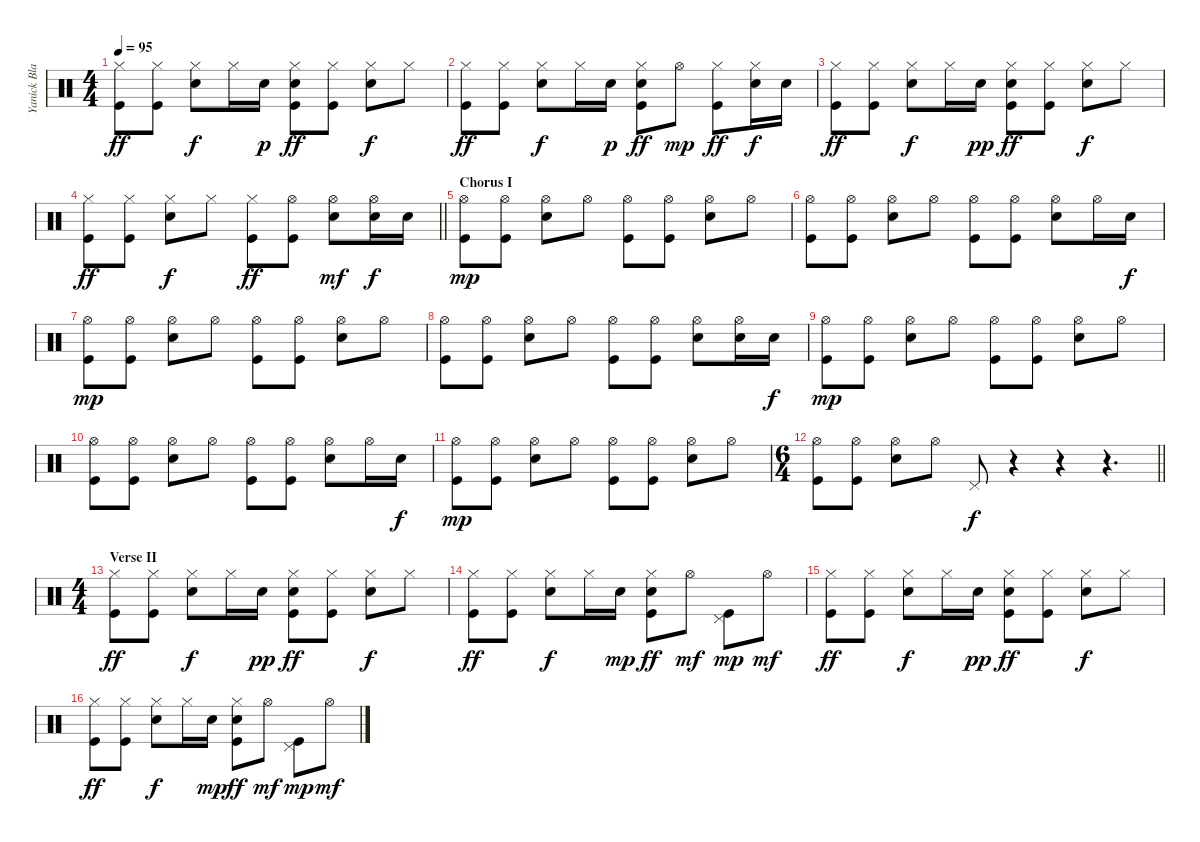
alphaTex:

\track ("Yanick Blanchette" "Yanick Bla") {instrument percussion}
\staff {score}
\articulation defaults
\ts (4 4)
\tempo 95
\clef neutral
\ks c
("Hi-Hat (closed)" "Kick (hit)").8{dy ff} ("Hi-Hat (closed)" "Kick (hit)").8 ("Hi-Hat (closed)" "Snare (hit) 2").8{dy f} "Hi-Hat (closed)".16 "Snare (hit) 2".16{dy p} ("Hi-Hat (closed)" "Snare (hit) 2" "Kick (hit)").8{dy ff} ("Hi-Hat (closed)" "Kick (hit)").8 ("Hi-Hat (closed)" "Snare (hit) 2").8{dy f} "Hi-Hat (closed)".8 |
("Hi-Hat (closed)" "Kick (hit)").8{dy ff} ("Hi-Hat (closed)" "Kick (hit)").8 ("Hi-Hat (closed)" "Snare (hit) 2").8{dy f} "Hi-Hat (closed)".16 "Snare (hit) 2".16{dy p} ("Hi-Hat (closed)" "Snare (hit) 2" "Kick (hit)").8{dy ff} "Hi-Hat (open)".8{dy mp} ("Hi-Hat (closed)" "Kick (hit)").8{dy ff} ("Hi-Hat (closed)" "Snare (hit) 2").16{dy f} "Snare (hit) 2".16 |
("Hi-Hat (closed)" "Kick (hit)").8{dy ff} ("Hi-Hat (closed)" "Kick (hit)").8 ("Hi-Hat (closed)" "Snare (hit) 2").8{dy f} "Hi-Hat (closed)".16 "Snare (hit) 2".16{dy pp} ("Hi-Hat (closed)" "Snare (hit) 2" "Kick (hit)").8{dy ff} ("Hi-Hat (closed)" "Kick (hit)").8 ("Hi-Hat (closed)" "Snare (hit) 2").8{dy f} "Hi-Hat (closed)".8 |
\barLineRight lightlight
("Hi-Hat (closed)" "Kick (hit)").8{dy ff} ("Hi-Hat (closed)" "Kick (hit)").8 ("Hi-Hat (closed)" "Snare (hit) 2").8{dy f} "Hi-Hat (closed)".8 ("Hi-Hat (closed)" "Kick (hit)").8{dy ff} ("Hi-Hat (open)" "Kick (hit)").8 ("Hi-Hat (open)" "Snare (hit) 2").8{dy mf} ("Hi-Hat (open)" "Snare (hit) 2").16{dy f} "Snare (hit) 2".16 |
\section ("" "Chorus I")
("Hi-Hat (open)" "Kick (hit)").8{dy mp} ("Hi-Hat (open)" "Kick (hit)").8 ("Hi-Hat (open)" "Snare (hit) 2").8 "Hi-Hat (open)".8 ("Hi-Hat (open)" "Kick (hit)").8 ("Hi-Hat (open)" "Kick (hit)").8 ("Hi-Hat (open)" "Snare (hit) 2").8 "Hi-Hat (open)".8 |
("Hi-Hat (open)" "Kick (hit)").8 ("Hi-Hat (open)" "Kick (hit)").8 ("Hi-Hat (open)" "Snare (hit) 2").8 "Hi-Hat (open)".8 ("Hi-Hat (open)" "Kick (hit)").8 ("Hi-Hat (open)" "Kick (hit)").8 ("Hi-Hat (open)" "Snare (hit) 2").8 "Hi-Hat (open)".16 "Snare (hit) 2".16{dy f} |
("Hi-Hat (open)" "Kick (hit)").8{dy mp} ("Hi-Hat (open)" "Kick (hit)").8 ("Hi-Hat (open)" "Snare (hit) 2").8 "Hi-Hat (open)".8 ("Hi-Hat (open)" "Kick (hit)").8 ("Hi-Hat (open)" "Kick (hit)").8 ("Hi-Hat (open)" "Snare (hit) 2").8 "Hi-Hat (open)".8 |
("Hi-Hat (open)" "Kick (hit)").8 ("Hi-Hat (open)" "Kick (hit)").8 ("Hi-Hat (open)" "Snare (hit) 2").8 "Hi-Hat (open)".8 ("Hi-Hat (open)" "Kick (hit)").8 ("Hi-Hat (open)" "Kick (hit)").8 ("Hi-Hat (open)" "Snare (hit) 2").8 ("Hi-Hat (open)" "Snare (hit) 2").16 "Snare (hit) 2".16{dy f} |
("Hi-Hat (open)" "Kick (hit)").8{dy mp} ("Hi-Hat (open)" "Kick (hit)").8 ("Hi-Hat (open)" "Snare (hit) 2").8 "Hi-Hat (open)".8 ("Hi-Hat (open)" "Kick (hit)").8 ("Hi-Hat (open)" "Kick (hit)").8 ("Hi-Hat (open)" "Snare (hit) 2").8 "Hi-Hat (open)".8 |
("Hi-Hat (open)" "Kick (hit)").8 ("Hi-Hat (open)" "Kick (hit)").8 ("Hi-Hat (open)" "Snare (hit) 2").8 "Hi-Hat (open)".8 ("Hi-Hat (open)" "Kick (hit)").8 ("Hi-Hat (open)" "Kick (hit)").8 ("Hi-Hat (open)" "Snare (hit) 2").8 "Hi-Hat (open)".16 "Snare (hit) 2".16{dy f} |
("Hi-Hat (open)" "Kick (hit)").8{dy mp} ("Hi-Hat (open)" "Kick (hit)").8 ("Hi-Hat (open)" "Snare (hit) 2").8 "Hi-Hat (open)".8 ("Hi-Hat (open)" "Kick (hit)").8 ("Hi-Hat (open)" "Kick (hit)").8 ("Hi-Hat (open)" "Snare (hit) 2").8 "Hi-Hat (open)".8 |
\ts (6 4)
\barLineRight lightlight
("Hi-Hat (open)" "Kick (hit)").8 ("Hi-Hat (open)" "Kick (hit)").8 ("Hi-Hat (open)" "Snare (hit) 2").8 "Hi-Hat (open)".8 "Pedal Hi-Hat (hit)".8{dy f} r.4 r.4 r.4{d} |
\ts (4 4)
\section ("" "Verse II")
("Hi-Hat (closed)" "Kick (hit)").8{dy ff} ("Hi-Hat (closed)" "Kick (hit)").8 ("Hi-Hat (closed)" "Snare (hit) 2").8{dy f} "Hi-Hat (closed)".16 "Snare (hit) 2".16{dy pp} ("Hi-Hat (closed)" "Snare (hit) 2" "Kick (hit)").8{dy ff} ("Hi-Hat (closed)" "Kick (hit)").8 ("Hi-Hat (closed)" "Snare (hit) 2").8{dy f} "Hi-Hat (closed)".8 |
("Hi-Hat (closed)" "Kick (hit)").8{dy ff} ("Hi-Hat (closed)" "Kick (hit)").8 ("Hi-Hat (closed)" "Snare (hit) 2").8{dy f} "Hi-Hat (closed)".16 "Snare (hit) 2".16{dy mp} ("Hi-Hat (closed)" "Snare (hit) 2" "Kick (hit)").8{dy ff} "Hi-Hat (open)".8{dy mf} ("Pedal Hi-Hat (hit)" "Kick (hit)").8{dy mp} "Hi-Hat (open)".8{dy mf} |
("Hi-Hat (closed)" "Kick (hit)").8{dy ff} ("Hi-Hat (closed)" "Kick (hit)").8 ("Hi-Hat (closed)" "Snare (hit) 2").8{dy f} "Hi-Hat (closed)".16 "Snare (hit) 2".16{dy pp} ("Hi-Hat (closed)" "Snare (hit) 2" "Kick (hit)").8{dy ff} ("Hi-Hat (closed)" "Kick (hit)").8 ("Hi-Hat (closed)" "Snare (hit) 2").8{dy f} "Hi-Hat (closed)".8 |
("Hi-Hat (closed)" "Kick (hit)").8{dy ff} ("Hi-Hat (closed)" "Kick (hit)").8 ("Hi-Hat (closed)" "Snare (hit) 2").8{dy f} "Hi-Hat (closed)".16 "Snare (hit) 2".16{dy mp} ("Hi-Hat (closed)" "Snare (hit) 2" "Kick (hit)").8{dy ff} "Hi-Hat (open)".8{dy mf} ("Pedal Hi-Hat (hit)" "Kick (hit)").8{dy mp} "Hi-Hat (open)".8{dy mf}
